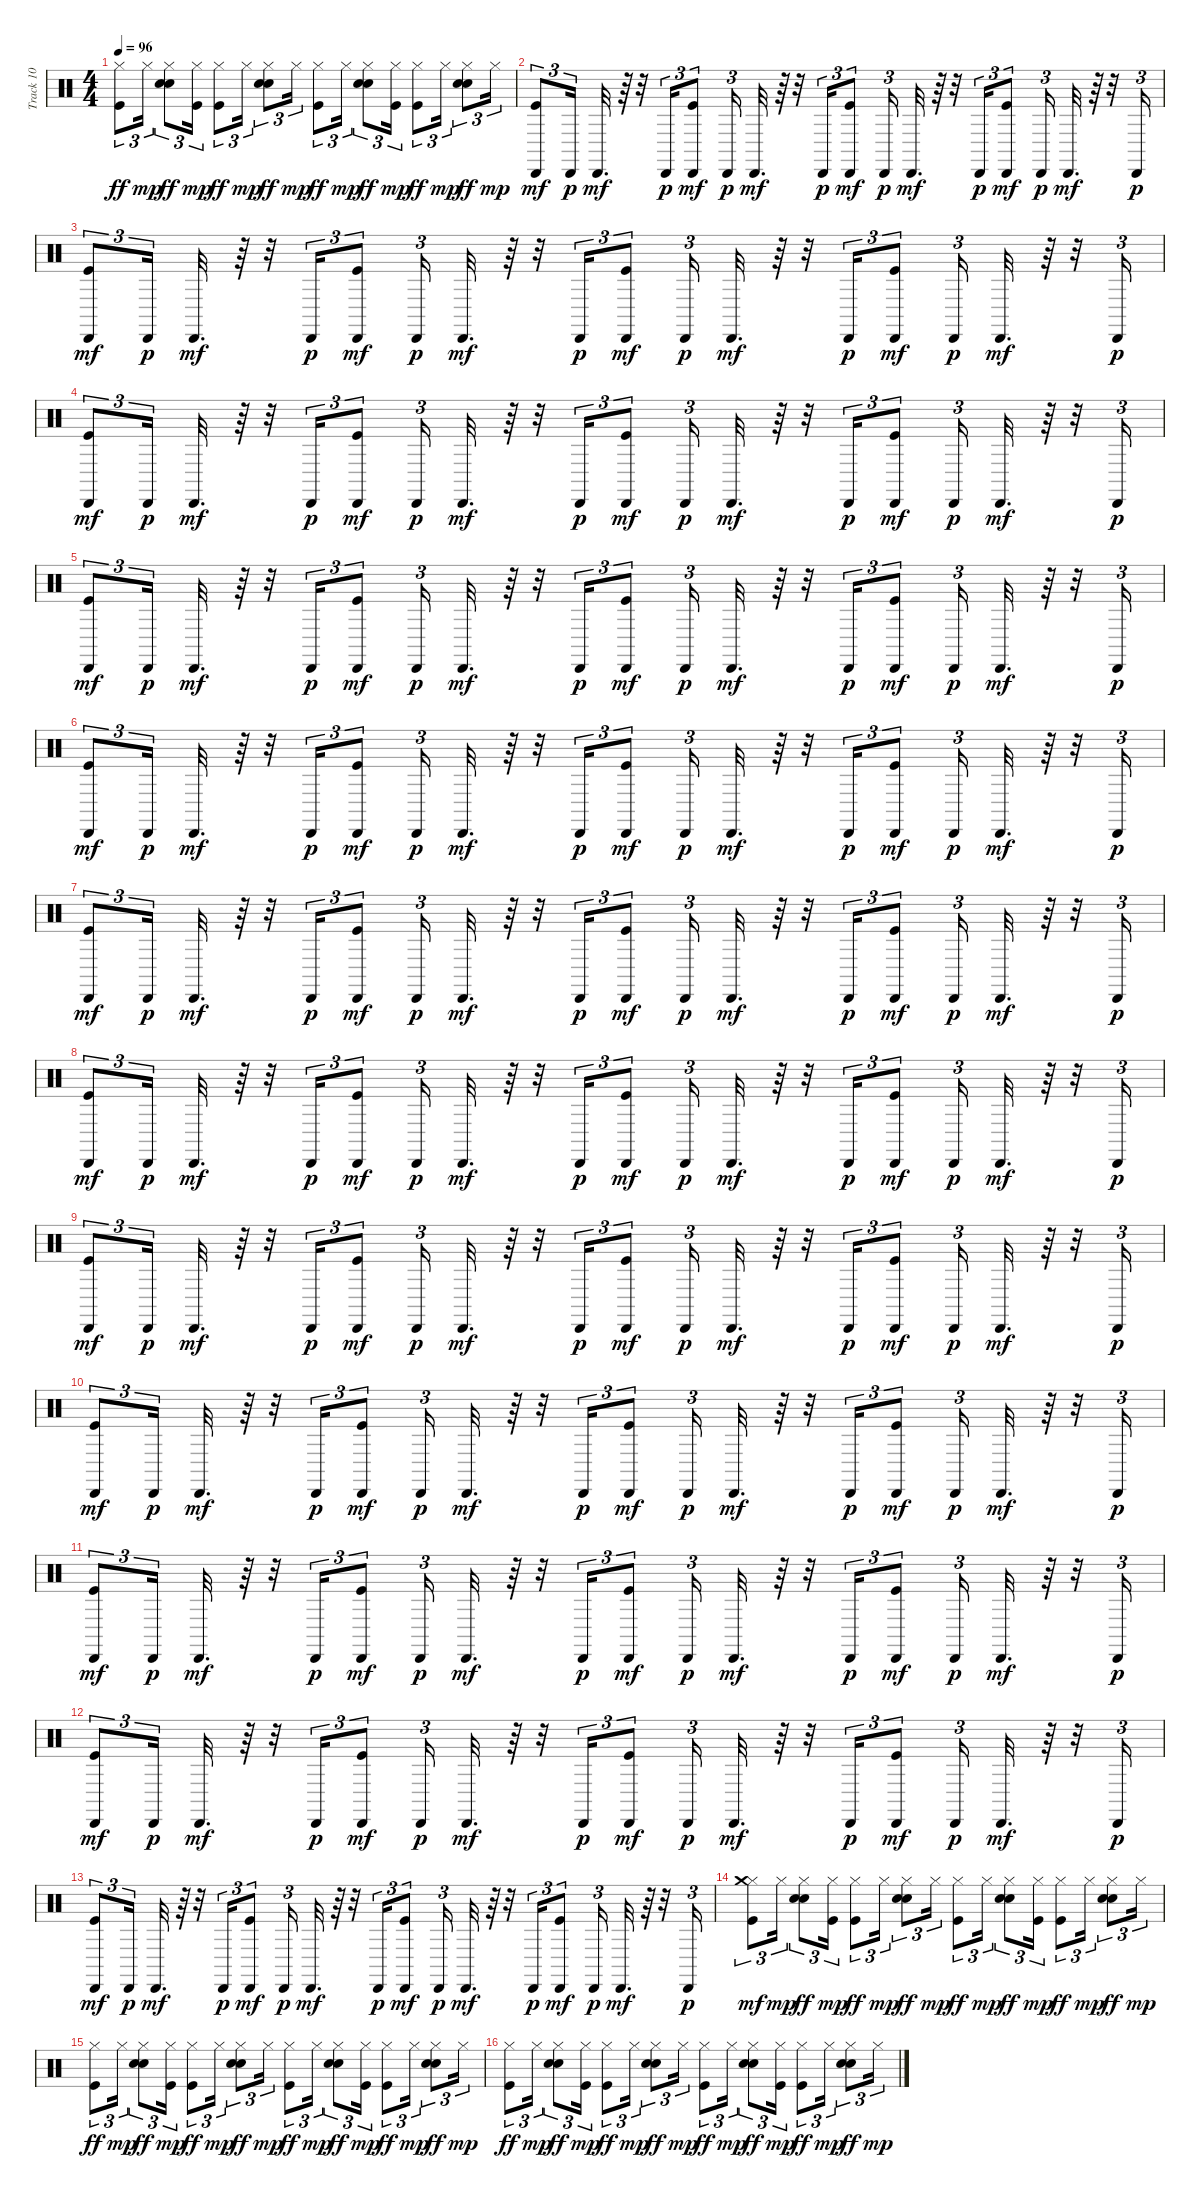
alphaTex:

\track ("Track 10" "Track 10") {instrument percussion}
\staff {score}
\articulation defaults
\ts (4 4)
\tempo 96
\clef neutral
\ks c
("Kick (hit)" "Hi-Hat (closed)").8{tu (3 2) dy ff} "Hi-Hat (closed)".16{tu (3 2) dy mp} ("Snare (hit) 2" "Hand Clap (hit)" "Hi-Hat (closed)").8{tu (3 2) dy ff} ("Kick (hit)" "Hi-Hat (closed)").16{tu (3 2) dy mp} ("Kick (hit)" "Hi-Hat (closed)").8{tu (3 2) dy ff} "Hi-Hat (closed)".16{tu (3 2) dy mp} ("Snare (hit) 2" "Hand Clap (hit)" "Hi-Hat (closed)").8{tu (3 2) dy ff} "Hi-Hat (closed)".16{tu (3 2) dy mp} ("Kick (hit)" "Hi-Hat (closed)").8{tu (3 2) dy ff} "Hi-Hat (closed)".16{tu (3 2) dy mp} ("Snare (hit) 2" "Hand Clap (hit)" "Hi-Hat (closed)").8{tu (3 2) dy ff} ("Kick (hit)" "Hi-Hat (closed)").16{tu (3 2) dy mp} ("Kick (hit)" "Hi-Hat (closed)").8{tu (3 2) dy ff} "Hi-Hat (closed)".16{tu (3 2) dy mp} ("Snare (hit) 2" "Hand Clap (hit)" "Hi-Hat (closed)").8{tu (3 2) dy ff} "Hi-Hat (closed)".16{tu (3 2) dy mp} |
("Kick (hit)" "Cabasa (hit)").8{tu (3 2) dy mf} "Cabasa (hit)".16{tu (3 2) dy p} "Cabasa (hit)".32{d dy mf} r.64 r.32 "Cabasa (hit)".16{tu (3 2) dy p} ("Kick (hit)" "Cabasa (hit)").8{tu (3 2) dy mf} "Cabasa (hit)".16{tu (3 2) dy p} "Cabasa (hit)".32{d dy mf} r.64 r.32 "Cabasa (hit)".16{tu (3 2) dy p} ("Kick (hit)" "Cabasa (hit)").8{tu (3 2) dy mf} "Cabasa (hit)".16{tu (3 2) dy p} "Cabasa (hit)".32{d dy mf} r.64 r.32 "Cabasa (hit)".16{tu (3 2) dy p} ("Kick (hit)" "Cabasa (hit)").8{tu (3 2) dy mf} "Cabasa (hit)".16{tu (3 2) dy p} "Cabasa (hit)".32{d dy mf} r.64 r.32 "Cabasa (hit)".16{tu (3 2) dy p} |
("Kick (hit)" "Cabasa (hit)").8{tu (3 2) dy mf} "Cabasa (hit)".16{tu (3 2) dy p} "Cabasa (hit)".32{d dy mf} r.64 r.32 "Cabasa (hit)".16{tu (3 2) dy p} ("Kick (hit)" "Cabasa (hit)").8{tu (3 2) dy mf} "Cabasa (hit)".16{tu (3 2) dy p} "Cabasa (hit)".32{d dy mf} r.64 r.32 "Cabasa (hit)".16{tu (3 2) dy p} ("Kick (hit)" "Cabasa (hit)").8{tu (3 2) dy mf} "Cabasa (hit)".16{tu (3 2) dy p} "Cabasa (hit)".32{d dy mf} r.64 r.32 "Cabasa (hit)".16{tu (3 2) dy p} ("Kick (hit)" "Cabasa (hit)").8{tu (3 2) dy mf} "Cabasa (hit)".16{tu (3 2) dy p} "Cabasa (hit)".32{d dy mf} r.64 r.32 "Cabasa (hit)".16{tu (3 2) dy p} |
("Kick (hit)" "Cabasa (hit)").8{tu (3 2) dy mf} "Cabasa (hit)".16{tu (3 2) dy p} "Cabasa (hit)".32{d dy mf} r.64 r.32 "Cabasa (hit)".16{tu (3 2) dy p} ("Kick (hit)" "Cabasa (hit)").8{tu (3 2) dy mf} "Cabasa (hit)".16{tu (3 2) dy p} "Cabasa (hit)".32{d dy mf} r.64 r.32 "Cabasa (hit)".16{tu (3 2) dy p} ("Kick (hit)" "Cabasa (hit)").8{tu (3 2) dy mf} "Cabasa (hit)".16{tu (3 2) dy p} "Cabasa (hit)".32{d dy mf} r.64 r.32 "Cabasa (hit)".16{tu (3 2) dy p} ("Kick (hit)" "Cabasa (hit)").8{tu (3 2) dy mf} "Cabasa (hit)".16{tu (3 2) dy p} "Cabasa (hit)".32{d dy mf} r.64 r.32 "Cabasa (hit)".16{tu (3 2) dy p} |
("Kick (hit)" "Cabasa (hit)").8{tu (3 2) dy mf} "Cabasa (hit)".16{tu (3 2) dy p} "Cabasa (hit)".32{d dy mf} r.64 r.32 "Cabasa (hit)".16{tu (3 2) dy p} ("Kick (hit)" "Cabasa (hit)").8{tu (3 2) dy mf} "Cabasa (hit)".16{tu (3 2) dy p} "Cabasa (hit)".32{d dy mf} r.64 r.32 "Cabasa (hit)".16{tu (3 2) dy p} ("Kick (hit)" "Cabasa (hit)").8{tu (3 2) dy mf} "Cabasa (hit)".16{tu (3 2) dy p} "Cabasa (hit)".32{d dy mf} r.64 r.32 "Cabasa (hit)".16{tu (3 2) dy p} ("Kick (hit)" "Cabasa (hit)").8{tu (3 2) dy mf} "Cabasa (hit)".16{tu (3 2) dy p} "Cabasa (hit)".32{d dy mf} r.64 r.32 "Cabasa (hit)".16{tu (3 2) dy p} |
("Kick (hit)" "Cabasa (hit)").8{tu (3 2) dy mf} "Cabasa (hit)".16{tu (3 2) dy p} "Cabasa (hit)".32{d dy mf} r.64 r.32 "Cabasa (hit)".16{tu (3 2) dy p} ("Kick (hit)" "Cabasa (hit)").8{tu (3 2) dy mf} "Cabasa (hit)".16{tu (3 2) dy p} "Cabasa (hit)".32{d dy mf} r.64 r.32 "Cabasa (hit)".16{tu (3 2) dy p} ("Kick (hit)" "Cabasa (hit)").8{tu (3 2) dy mf} "Cabasa (hit)".16{tu (3 2) dy p} "Cabasa (hit)".32{d dy mf} r.64 r.32 "Cabasa (hit)".16{tu (3 2) dy p} ("Kick (hit)" "Cabasa (hit)").8{tu (3 2) dy mf} "Cabasa (hit)".16{tu (3 2) dy p} "Cabasa (hit)".32{d dy mf} r.64 r.32 "Cabasa (hit)".16{tu (3 2) dy p} |
("Kick (hit)" "Cabasa (hit)").8{tu (3 2) dy mf} "Cabasa (hit)".16{tu (3 2) dy p} "Cabasa (hit)".32{d dy mf} r.64 r.32 "Cabasa (hit)".16{tu (3 2) dy p} ("Kick (hit)" "Cabasa (hit)").8{tu (3 2) dy mf} "Cabasa (hit)".16{tu (3 2) dy p} "Cabasa (hit)".32{d dy mf} r.64 r.32 "Cabasa (hit)".16{tu (3 2) dy p} ("Kick (hit)" "Cabasa (hit)").8{tu (3 2) dy mf} "Cabasa (hit)".16{tu (3 2) dy p} "Cabasa (hit)".32{d dy mf} r.64 r.32 "Cabasa (hit)".16{tu (3 2) dy p} ("Kick (hit)" "Cabasa (hit)").8{tu (3 2) dy mf} "Cabasa (hit)".16{tu (3 2) dy p} "Cabasa (hit)".32{d dy mf} r.64 r.32 "Cabasa (hit)".16{tu (3 2) dy p} |
("Kick (hit)" "Cabasa (hit)").8{tu (3 2) dy mf} "Cabasa (hit)".16{tu (3 2) dy p} "Cabasa (hit)".32{d dy mf} r.64 r.32 "Cabasa (hit)".16{tu (3 2) dy p} ("Kick (hit)" "Cabasa (hit)").8{tu (3 2) dy mf} "Cabasa (hit)".16{tu (3 2) dy p} "Cabasa (hit)".32{d dy mf} r.64 r.32 "Cabasa (hit)".16{tu (3 2) dy p} ("Kick (hit)" "Cabasa (hit)").8{tu (3 2) dy mf} "Cabasa (hit)".16{tu (3 2) dy p} "Cabasa (hit)".32{d dy mf} r.64 r.32 "Cabasa (hit)".16{tu (3 2) dy p} ("Kick (hit)" "Cabasa (hit)").8{tu (3 2) dy mf} "Cabasa (hit)".16{tu (3 2) dy p} "Cabasa (hit)".32{d dy mf} r.64 r.32 "Cabasa (hit)".16{tu (3 2) dy p} |
("Kick (hit)" "Cabasa (hit)").8{tu (3 2) dy mf} "Cabasa (hit)".16{tu (3 2) dy p} "Cabasa (hit)".32{d dy mf} r.64 r.32 "Cabasa (hit)".16{tu (3 2) dy p} ("Kick (hit)" "Cabasa (hit)").8{tu (3 2) dy mf} "Cabasa (hit)".16{tu (3 2) dy p} "Cabasa (hit)".32{d dy mf} r.64 r.32 "Cabasa (hit)".16{tu (3 2) dy p} ("Kick (hit)" "Cabasa (hit)").8{tu (3 2) dy mf} "Cabasa (hit)".16{tu (3 2) dy p} "Cabasa (hit)".32{d dy mf} r.64 r.32 "Cabasa (hit)".16{tu (3 2) dy p} ("Kick (hit)" "Cabasa (hit)").8{tu (3 2) dy mf} "Cabasa (hit)".16{tu (3 2) dy p} "Cabasa (hit)".32{d dy mf} r.64 r.32 "Cabasa (hit)".16{tu (3 2) dy p} |
("Kick (hit)" "Cabasa (hit)").8{tu (3 2) dy mf} "Cabasa (hit)".16{tu (3 2) dy p} "Cabasa (hit)".32{d dy mf} r.64 r.32 "Cabasa (hit)".16{tu (3 2) dy p} ("Kick (hit)" "Cabasa (hit)").8{tu (3 2) dy mf} "Cabasa (hit)".16{tu (3 2) dy p} "Cabasa (hit)".32{d dy mf} r.64 r.32 "Cabasa (hit)".16{tu (3 2) dy p} ("Kick (hit)" "Cabasa (hit)").8{tu (3 2) dy mf} "Cabasa (hit)".16{tu (3 2) dy p} "Cabasa (hit)".32{d dy mf} r.64 r.32 "Cabasa (hit)".16{tu (3 2) dy p} ("Kick (hit)" "Cabasa (hit)").8{tu (3 2) dy mf} "Cabasa (hit)".16{tu (3 2) dy p} "Cabasa (hit)".32{d dy mf} r.64 r.32 "Cabasa (hit)".16{tu (3 2) dy p} |
("Kick (hit)" "Cabasa (hit)").8{tu (3 2) dy mf} "Cabasa (hit)".16{tu (3 2) dy p} "Cabasa (hit)".32{d dy mf} r.64 r.32 "Cabasa (hit)".16{tu (3 2) dy p} ("Kick (hit)" "Cabasa (hit)").8{tu (3 2) dy mf} "Cabasa (hit)".16{tu (3 2) dy p} "Cabasa (hit)".32{d dy mf} r.64 r.32 "Cabasa (hit)".16{tu (3 2) dy p} ("Kick (hit)" "Cabasa (hit)").8{tu (3 2) dy mf} "Cabasa (hit)".16{tu (3 2) dy p} "Cabasa (hit)".32{d dy mf} r.64 r.32 "Cabasa (hit)".16{tu (3 2) dy p} ("Kick (hit)" "Cabasa (hit)").8{tu (3 2) dy mf} "Cabasa (hit)".16{tu (3 2) dy p} "Cabasa (hit)".32{d dy mf} r.64 r.32 "Cabasa (hit)".16{tu (3 2) dy p} |
("Kick (hit)" "Cabasa (hit)").8{tu (3 2) dy mf} "Cabasa (hit)".16{tu (3 2) dy p} "Cabasa (hit)".32{d dy mf} r.64 r.32 "Cabasa (hit)".16{tu (3 2) dy p} ("Kick (hit)" "Cabasa (hit)").8{tu (3 2) dy mf} "Cabasa (hit)".16{tu (3 2) dy p} "Cabasa (hit)".32{d dy mf} r.64 r.32 "Cabasa (hit)".16{tu (3 2) dy p} ("Kick (hit)" "Cabasa (hit)").8{tu (3 2) dy mf} "Cabasa (hit)".16{tu (3 2) dy p} "Cabasa (hit)".32{d dy mf} r.64 r.32 "Cabasa (hit)".16{tu (3 2) dy p} ("Kick (hit)" "Cabasa (hit)").8{tu (3 2) dy mf} "Cabasa (hit)".16{tu (3 2) dy p} "Cabasa (hit)".32{d dy mf} r.64 r.32 "Cabasa (hit)".16{tu (3 2) dy p} |
("Kick (hit)" "Cabasa (hit)").8{tu (3 2) dy mf} "Cabasa (hit)".16{tu (3 2) dy p} "Cabasa (hit)".32{d dy mf} r.64 r.32 "Cabasa (hit)".16{tu (3 2) dy p} ("Kick (hit)" "Cabasa (hit)").8{tu (3 2) dy mf} "Cabasa (hit)".16{tu (3 2) dy p} "Cabasa (hit)".32{d dy mf} r.64 r.32 "Cabasa (hit)".16{tu (3 2) dy p} ("Kick (hit)" "Cabasa (hit)").8{tu (3 2) dy mf} "Cabasa (hit)".16{tu (3 2) dy p} "Cabasa (hit)".32{d dy mf} r.64 r.32 "Cabasa (hit)".16{tu (3 2) dy p} ("Kick (hit)" "Cabasa (hit)").8{tu (3 2) dy mf} "Cabasa (hit)".16{tu (3 2) dy p} "Cabasa (hit)".32{d dy mf} r.64 r.32 "Cabasa (hit)".16{tu (3 2) dy p} |
("Kick (hit)" "Hi-Hat (closed)" "Crash medium (hit)").8{tu (3 2) dy mf} "Hi-Hat (closed)".16{tu (3 2) dy mp} ("Snare (hit) 2" "Hand Clap (hit)" "Hi-Hat (closed)").8{tu (3 2) dy ff} ("Kick (hit)" "Hi-Hat (closed)").16{tu (3 2) dy mp} ("Kick (hit)" "Hi-Hat (closed)").8{tu (3 2) dy ff} "Hi-Hat (closed)".16{tu (3 2) dy mp} ("Snare (hit) 2" "Hand Clap (hit)" "Hi-Hat (closed)").8{tu (3 2) dy ff} "Hi-Hat (closed)".16{tu (3 2) dy mp} ("Kick (hit)" "Hi-Hat (closed)").8{tu (3 2) dy ff} "Hi-Hat (closed)".16{tu (3 2) dy mp} ("Snare (hit) 2" "Hand Clap (hit)" "Hi-Hat (closed)").8{tu (3 2) dy ff} ("Kick (hit)" "Hi-Hat (closed)").16{tu (3 2) dy mp} ("Kick (hit)" "Hi-Hat (closed)").8{tu (3 2) dy ff} "Hi-Hat (closed)".16{tu (3 2) dy mp} ("Snare (hit) 2" "Hand Clap (hit)" "Hi-Hat (closed)").8{tu (3 2) dy ff} "Hi-Hat (closed)".16{tu (3 2) dy mp} |
("Kick (hit)" "Hi-Hat (closed)").8{tu (3 2) dy ff} "Hi-Hat (closed)".16{tu (3 2) dy mp} ("Snare (hit) 2" "Hand Clap (hit)" "Hi-Hat (closed)").8{tu (3 2) dy ff} ("Kick (hit)" "Hi-Hat (closed)").16{tu (3 2) dy mp} ("Kick (hit)" "Hi-Hat (closed)").8{tu (3 2) dy ff} "Hi-Hat (closed)".16{tu (3 2) dy mp} ("Snare (hit) 2" "Hand Clap (hit)" "Hi-Hat (closed)").8{tu (3 2) dy ff} "Hi-Hat (closed)".16{tu (3 2) dy mp} ("Kick (hit)" "Hi-Hat (closed)").8{tu (3 2) dy ff} "Hi-Hat (closed)".16{tu (3 2) dy mp} ("Snare (hit) 2" "Hand Clap (hit)" "Hi-Hat (closed)").8{tu (3 2) dy ff} ("Kick (hit)" "Hi-Hat (closed)").16{tu (3 2) dy mp} ("Kick (hit)" "Hi-Hat (closed)").8{tu (3 2) dy ff} "Hi-Hat (closed)".16{tu (3 2) dy mp} ("Snare (hit) 2" "Hand Clap (hit)" "Hi-Hat (closed)").8{tu (3 2) dy ff} "Hi-Hat (closed)".16{tu (3 2) dy mp} |
("Kick (hit)" "Hi-Hat (closed)").8{tu (3 2) dy ff} "Hi-Hat (closed)".16{tu (3 2) dy mp} ("Snare (hit) 2" "Hand Clap (hit)" "Hi-Hat (closed)").8{tu (3 2) dy ff} ("Kick (hit)" "Hi-Hat (closed)").16{tu (3 2) dy mp} ("Kick (hit)" "Hi-Hat (closed)").8{tu (3 2) dy ff} "Hi-Hat (closed)".16{tu (3 2) dy mp} ("Snare (hit) 2" "Hand Clap (hit)" "Hi-Hat (closed)").8{tu (3 2) dy ff} "Hi-Hat (closed)".16{tu (3 2) dy mp} ("Kick (hit)" "Hi-Hat (closed)").8{tu (3 2) dy ff} "Hi-Hat (closed)".16{tu (3 2) dy mp} ("Snare (hit) 2" "Hand Clap (hit)" "Hi-Hat (closed)").8{tu (3 2) dy ff} ("Kick (hit)" "Hi-Hat (closed)").16{tu (3 2) dy mp} ("Kick (hit)" "Hi-Hat (closed)").8{tu (3 2) dy ff} "Hi-Hat (closed)".16{tu (3 2) dy mp} ("Snare (hit) 2" "Hand Clap (hit)" "Hi-Hat (closed)").8{tu (3 2) dy ff} "Hi-Hat (closed)".16{tu (3 2) dy mp}
